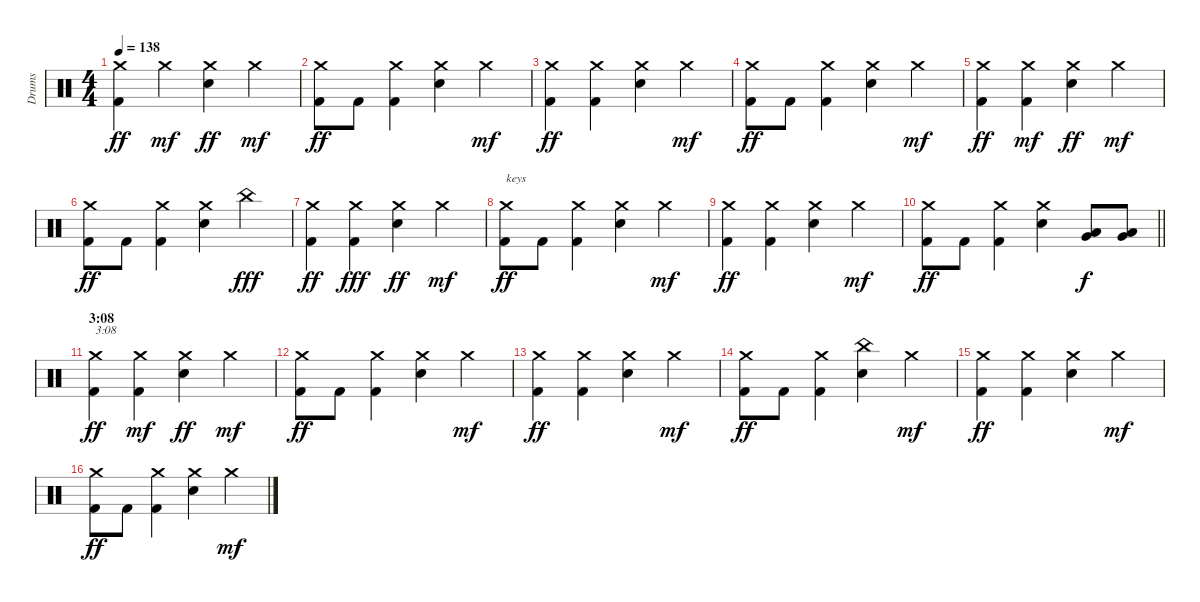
\track ("Drums" "Drums") {instrument percussion}
\staff {score}
\articulation defaults
\ts (4 4)
\tempo 138
\clef neutral
\ks c
("Crash medium (hit)" "Kick (hit) 2").4{dy ff} "Crash medium (hit)".4{dy mf} ("Crash medium (hit)" "Electric Snare (hit)").4{dy ff} "Crash medium (hit)".4{dy mf} |
("Crash medium (hit)" "Kick (hit) 2").8{dy ff} "Kick (hit) 2".8 ("Crash medium (hit)" "Kick (hit) 2").4 ("Crash medium (hit)" "Electric Snare (hit)").4 "Crash medium (hit)".4{dy mf} |
("Crash medium (hit)" "Kick (hit) 2").4{dy ff} ("Crash medium (hit)" "Kick (hit) 2").4 ("Crash medium (hit)" "Electric Snare (hit)").4 "Crash medium (hit)".4{dy mf} |
("Crash medium (hit)" "Kick (hit) 2").8{dy ff} "Kick (hit) 2".8 ("Crash medium (hit)" "Kick (hit) 2").4 ("Crash medium (hit)" "Electric Snare (hit)").4 "Crash medium (hit)".4{dy mf} |
("Crash medium (hit)" "Kick (hit) 2").4{dy ff} ("Crash medium (hit)" "Kick (hit) 2").4{dy mf} ("Crash medium (hit)" "Electric Snare (hit)").4{dy ff} "Crash medium (hit)".4{dy mf} |
("Crash medium (hit)" "Kick (hit) 2").8{dy ff} "Kick (hit) 2".8 ("Crash medium (hit)" "Kick (hit) 2").4 ("Crash medium (hit)" "Electric Snare (hit)").4 "China (hit)".4{dy fff} |
("Crash medium (hit)" "Kick (hit) 2").4{dy ff} ("Crash medium (hit)" "Kick (hit) 2").4{dy fff} ("Crash medium (hit)" "Electric Snare (hit)").4{dy ff} "Crash medium (hit)".4{dy mf} |
("Crash medium (hit)" "Kick (hit) 2").8{txt "keys" dy ff} "Kick (hit) 2".8 ("Crash medium (hit)" "Kick (hit) 2").4 ("Crash medium (hit)" "Electric Snare (hit)").4 "Crash medium (hit)".4{dy mf} |
("Crash medium (hit)" "Kick (hit) 2").4{dy ff} ("Crash medium (hit)" "Kick (hit) 2").4 ("Crash medium (hit)" "Electric Snare (hit)").4 "Crash medium (hit)".4{dy mf} |
\barLineRight lightlight
("Crash medium (hit)" "Kick (hit) 2").8{dy ff} "Kick (hit) 2".8 ("Crash medium (hit)" "Kick (hit) 2").4 ("Crash medium (hit)" "Electric Snare (hit)").4 ("Low Floor Tom (hit)" "Very Low Tom (hit)").8{dy f} ("Low Floor Tom (hit)" "Very Low Tom (hit)").8 |
\section ("" "3:08")
("Crash medium (hit)" "Kick (hit) 2").4{txt "3:08" dy ff} ("Crash medium (hit)" "Kick (hit) 2").4{dy mf} ("Crash medium (hit)" "Electric Snare (hit)").4{dy ff} "Crash medium (hit)".4{dy mf} |
("Crash medium (hit)" "Kick (hit) 2").8{dy ff} "Kick (hit) 2".8 ("Crash medium (hit)" "Kick (hit) 2").4 ("Crash medium (hit)" "Electric Snare (hit)").4 "Crash medium (hit)".4{dy mf} |
("Crash medium (hit)" "Kick (hit) 2").4{dy ff} ("Crash medium (hit)" "Kick (hit) 2").4 ("Crash medium (hit)" "Electric Snare (hit)").4 "Crash medium (hit)".4{dy mf} |
("Crash medium (hit)" "Kick (hit) 2").8{dy ff} "Kick (hit) 2".8 ("Crash medium (hit)" "Kick (hit) 2").4 ("China (hit)" "Electric Snare (hit)").4 "Crash medium (hit)".4{dy mf} |
("Crash medium (hit)" "Kick (hit) 2").4{dy ff} ("Crash medium (hit)" "Kick (hit) 2").4 ("Crash medium (hit)" "Electric Snare (hit)").4 "Crash medium (hit)".4{dy mf} |
("Crash medium (hit)" "Kick (hit) 2").8{dy ff} "Kick (hit) 2".8 ("Crash medium (hit)" "Kick (hit) 2").4 ("Crash medium (hit)" "Electric Snare (hit)").4 "Crash medium (hit)".4{dy mf}
